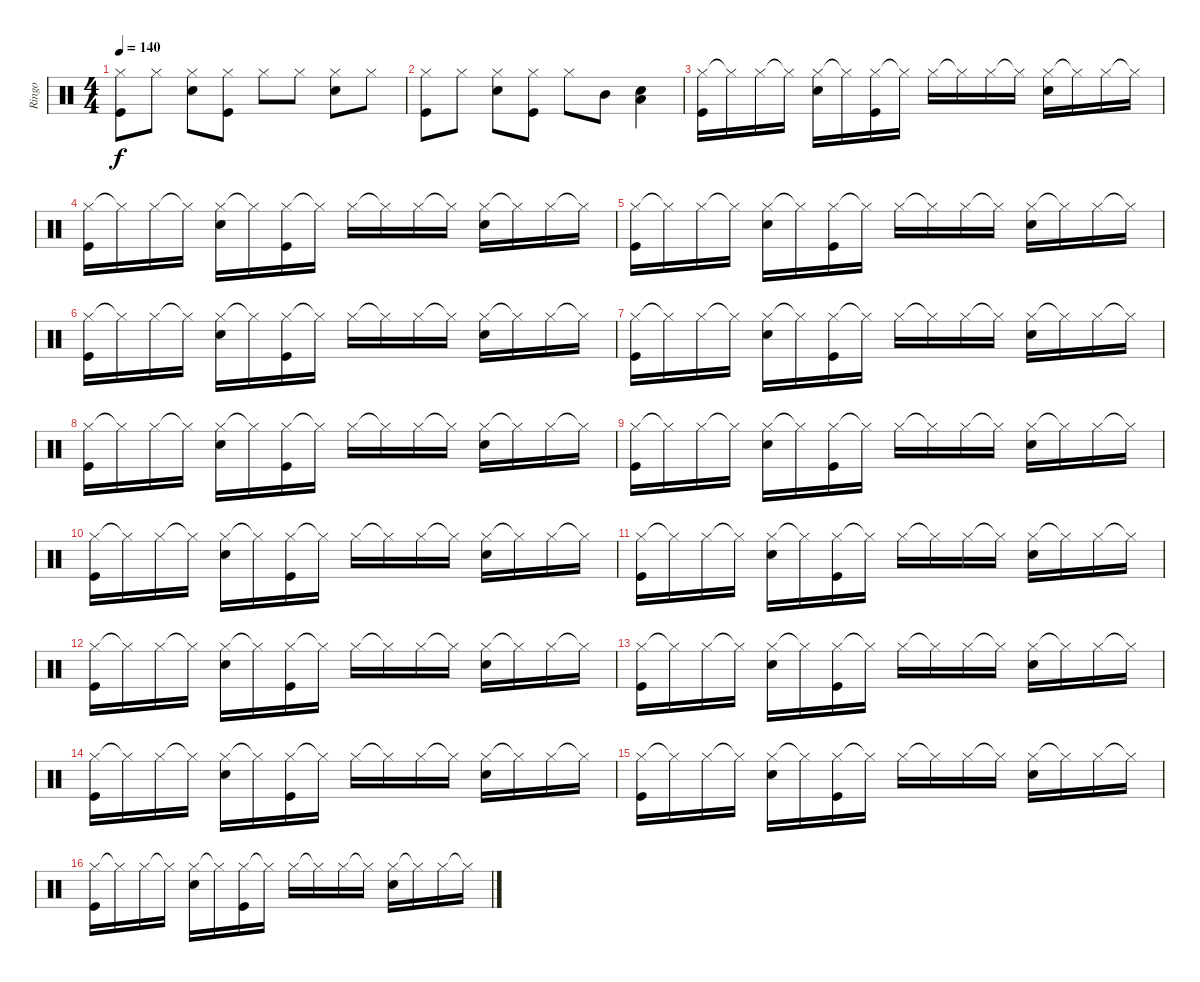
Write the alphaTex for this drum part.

\track ("Ringo" "Ringo") {instrument percussion}
\staff {score}
\articulation defaults
\ts (4 4)
\tempo 140
\clef neutral
\ks c
("Hi-Hat (closed)" "Kick (hit)").8{dy f} "Hi-Hat (closed)".8 ("Hi-Hat (closed)" "Snare (hit) 2").8 ("Hi-Hat (closed)" "Kick (hit)").8 "Hi-Hat (closed)".8 "Hi-Hat (closed)".8 ("Hi-Hat (closed)" "Snare (hit) 2").8 "Hi-Hat (closed)".8 |
("Hi-Hat (closed)" "Kick (hit)").8 "Hi-Hat (closed)".8 ("Hi-Hat (closed)" "Snare (hit) 2").8 ("Hi-Hat (closed)" "Kick (hit)").8 "Hi-Hat (closed)".8 "Mid Tom (hit)".8 ("Low Tom (hit)" "Snare (hit) 2").4 |
("Hi-Hat (closed)" "Kick (hit)").16 "Hi-Hat (closed)"{t}.16 "Hi-Hat (closed)".16 "Hi-Hat (closed)"{t}.16 ("Hi-Hat (closed)" "Snare (hit) 2").16 "Hi-Hat (closed)"{t}.16 ("Hi-Hat (closed)" "Kick (hit)").16 "Hi-Hat (closed)"{t}.16 "Hi-Hat (closed)".16 "Hi-Hat (closed)"{t}.16 "Hi-Hat (closed)".16 "Hi-Hat (closed)"{t}.16 ("Hi-Hat (closed)" "Snare (hit) 2").16 "Hi-Hat (closed)"{t}.16 "Hi-Hat (closed)".16 "Hi-Hat (closed)"{t}.16 |
("Hi-Hat (closed)" "Kick (hit)").16 "Hi-Hat (closed)"{t}.16 "Hi-Hat (closed)".16 "Hi-Hat (closed)"{t}.16 ("Hi-Hat (closed)" "Snare (hit) 2").16 "Hi-Hat (closed)"{t}.16 ("Hi-Hat (closed)" "Kick (hit)").16 "Hi-Hat (closed)"{t}.16 "Hi-Hat (closed)".16 "Hi-Hat (closed)"{t}.16 "Hi-Hat (closed)".16 "Hi-Hat (closed)"{t}.16 ("Hi-Hat (closed)" "Snare (hit) 2").16 "Hi-Hat (closed)"{t}.16 "Hi-Hat (closed)".16 "Hi-Hat (closed)"{t}.16 |
("Hi-Hat (closed)" "Kick (hit)").16 "Hi-Hat (closed)"{t}.16 "Hi-Hat (closed)".16 "Hi-Hat (closed)"{t}.16 ("Hi-Hat (closed)" "Snare (hit) 2").16 "Hi-Hat (closed)"{t}.16 ("Hi-Hat (closed)" "Kick (hit)").16 "Hi-Hat (closed)"{t}.16 "Hi-Hat (closed)".16 "Hi-Hat (closed)"{t}.16 "Hi-Hat (closed)".16 "Hi-Hat (closed)"{t}.16 ("Hi-Hat (closed)" "Snare (hit) 2").16 "Hi-Hat (closed)"{t}.16 "Hi-Hat (closed)".16 "Hi-Hat (closed)"{t}.16 |
("Hi-Hat (closed)" "Kick (hit)").16 "Hi-Hat (closed)"{t}.16 "Hi-Hat (closed)".16 "Hi-Hat (closed)"{t}.16 ("Hi-Hat (closed)" "Snare (hit) 2").16 "Hi-Hat (closed)"{t}.16 ("Hi-Hat (closed)" "Kick (hit)").16 "Hi-Hat (closed)"{t}.16 "Hi-Hat (closed)".16 "Hi-Hat (closed)"{t}.16 "Hi-Hat (closed)".16 "Hi-Hat (closed)"{t}.16 ("Hi-Hat (closed)" "Snare (hit) 2").16 "Hi-Hat (closed)"{t}.16 "Hi-Hat (closed)".16 "Hi-Hat (closed)"{t}.16 |
("Hi-Hat (closed)" "Kick (hit)").16 "Hi-Hat (closed)"{t}.16 "Hi-Hat (closed)".16 "Hi-Hat (closed)"{t}.16 ("Hi-Hat (closed)" "Snare (hit) 2").16 "Hi-Hat (closed)"{t}.16 ("Hi-Hat (closed)" "Kick (hit)").16 "Hi-Hat (closed)"{t}.16 "Hi-Hat (closed)".16 "Hi-Hat (closed)"{t}.16 "Hi-Hat (closed)".16 "Hi-Hat (closed)"{t}.16 ("Hi-Hat (closed)" "Snare (hit) 2").16 "Hi-Hat (closed)"{t}.16 "Hi-Hat (closed)".16 "Hi-Hat (closed)"{t}.16 |
("Hi-Hat (closed)" "Kick (hit)").16 "Hi-Hat (closed)"{t}.16 "Hi-Hat (closed)".16 "Hi-Hat (closed)"{t}.16 ("Hi-Hat (closed)" "Snare (hit) 2").16 "Hi-Hat (closed)"{t}.16 ("Hi-Hat (closed)" "Kick (hit)").16 "Hi-Hat (closed)"{t}.16 "Hi-Hat (closed)".16 "Hi-Hat (closed)"{t}.16 "Hi-Hat (closed)".16 "Hi-Hat (closed)"{t}.16 ("Hi-Hat (closed)" "Snare (hit) 2").16 "Hi-Hat (closed)"{t}.16 "Hi-Hat (closed)".16 "Hi-Hat (closed)"{t}.16 |
("Hi-Hat (closed)" "Kick (hit)").16 "Hi-Hat (closed)"{t}.16 "Hi-Hat (closed)".16 "Hi-Hat (closed)"{t}.16 ("Hi-Hat (closed)" "Snare (hit) 2").16 "Hi-Hat (closed)"{t}.16 ("Hi-Hat (closed)" "Kick (hit)").16 "Hi-Hat (closed)"{t}.16 "Hi-Hat (closed)".16 "Hi-Hat (closed)"{t}.16 "Hi-Hat (closed)".16 "Hi-Hat (closed)"{t}.16 ("Hi-Hat (closed)" "Snare (hit) 2").16 "Hi-Hat (closed)"{t}.16 "Hi-Hat (closed)".16 "Hi-Hat (closed)"{t}.16 |
("Hi-Hat (closed)" "Kick (hit)").16 "Hi-Hat (closed)"{t}.16 "Hi-Hat (closed)".16 "Hi-Hat (closed)"{t}.16 ("Hi-Hat (closed)" "Snare (hit) 2").16 "Hi-Hat (closed)"{t}.16 ("Hi-Hat (closed)" "Kick (hit)").16 "Hi-Hat (closed)"{t}.16 "Hi-Hat (closed)".16 "Hi-Hat (closed)"{t}.16 "Hi-Hat (closed)".16 "Hi-Hat (closed)"{t}.16 ("Hi-Hat (closed)" "Snare (hit) 2").16 "Hi-Hat (closed)"{t}.16 "Hi-Hat (closed)".16 "Hi-Hat (closed)"{t}.16 |
("Hi-Hat (closed)" "Kick (hit)").16 "Hi-Hat (closed)"{t}.16 "Hi-Hat (closed)".16 "Hi-Hat (closed)"{t}.16 ("Hi-Hat (closed)" "Snare (hit) 2").16 "Hi-Hat (closed)"{t}.16 ("Hi-Hat (closed)" "Kick (hit)").16 "Hi-Hat (closed)"{t}.16 "Hi-Hat (closed)".16 "Hi-Hat (closed)"{t}.16 "Hi-Hat (closed)".16 "Hi-Hat (closed)"{t}.16 ("Hi-Hat (closed)" "Snare (hit) 2").16 "Hi-Hat (closed)"{t}.16 "Hi-Hat (closed)".16 "Hi-Hat (closed)"{t}.16 |
("Hi-Hat (closed)" "Kick (hit)").16 "Hi-Hat (closed)"{t}.16 "Hi-Hat (closed)".16 "Hi-Hat (closed)"{t}.16 ("Hi-Hat (closed)" "Snare (hit) 2").16 "Hi-Hat (closed)"{t}.16 ("Hi-Hat (closed)" "Kick (hit)").16 "Hi-Hat (closed)"{t}.16 "Hi-Hat (closed)".16 "Hi-Hat (closed)"{t}.16 "Hi-Hat (closed)".16 "Hi-Hat (closed)"{t}.16 ("Hi-Hat (closed)" "Snare (hit) 2").16 "Hi-Hat (closed)"{t}.16 "Hi-Hat (closed)".16 "Hi-Hat (closed)"{t}.16 |
("Hi-Hat (closed)" "Kick (hit)").16 "Hi-Hat (closed)"{t}.16 "Hi-Hat (closed)".16 "Hi-Hat (closed)"{t}.16 ("Hi-Hat (closed)" "Snare (hit) 2").16 "Hi-Hat (closed)"{t}.16 ("Hi-Hat (closed)" "Kick (hit)").16 "Hi-Hat (closed)"{t}.16 "Hi-Hat (closed)".16 "Hi-Hat (closed)"{t}.16 "Hi-Hat (closed)".16 "Hi-Hat (closed)"{t}.16 ("Hi-Hat (closed)" "Snare (hit) 2").16 "Hi-Hat (closed)"{t}.16 "Hi-Hat (closed)".16 "Hi-Hat (closed)"{t}.16 |
("Hi-Hat (closed)" "Kick (hit)").16 "Hi-Hat (closed)"{t}.16 "Hi-Hat (closed)".16 "Hi-Hat (closed)"{t}.16 ("Hi-Hat (closed)" "Snare (hit) 2").16 "Hi-Hat (closed)"{t}.16 ("Hi-Hat (closed)" "Kick (hit)").16 "Hi-Hat (closed)"{t}.16 "Hi-Hat (closed)".16 "Hi-Hat (closed)"{t}.16 "Hi-Hat (closed)".16 "Hi-Hat (closed)"{t}.16 ("Hi-Hat (closed)" "Snare (hit) 2").16 "Hi-Hat (closed)"{t}.16 "Hi-Hat (closed)".16 "Hi-Hat (closed)"{t}.16 |
("Hi-Hat (closed)" "Kick (hit)").16 "Hi-Hat (closed)"{t}.16 "Hi-Hat (closed)".16 "Hi-Hat (closed)"{t}.16 ("Hi-Hat (closed)" "Snare (hit) 2").16 "Hi-Hat (closed)"{t}.16 ("Hi-Hat (closed)" "Kick (hit)").16 "Hi-Hat (closed)"{t}.16 "Hi-Hat (closed)".16 "Hi-Hat (closed)"{t}.16 "Hi-Hat (closed)".16 "Hi-Hat (closed)"{t}.16 ("Hi-Hat (closed)" "Snare (hit) 2").16 "Hi-Hat (closed)"{t}.16 "Hi-Hat (closed)".16 "Hi-Hat (closed)"{t}.16 |
("Hi-Hat (closed)" "Kick (hit)").16 "Hi-Hat (closed)"{t}.16 "Hi-Hat (closed)".16 "Hi-Hat (closed)"{t}.16 ("Hi-Hat (closed)" "Snare (hit) 2").16 "Hi-Hat (closed)"{t}.16 ("Hi-Hat (closed)" "Kick (hit)").16 "Hi-Hat (closed)"{t}.16 "Hi-Hat (closed)".16 "Hi-Hat (closed)"{t}.16 "Hi-Hat (closed)".16 "Hi-Hat (closed)"{t}.16 ("Hi-Hat (closed)" "Snare (hit) 2").16 "Hi-Hat (closed)"{t}.16 "Hi-Hat (closed)".16 "Hi-Hat (closed)"{t}.16
